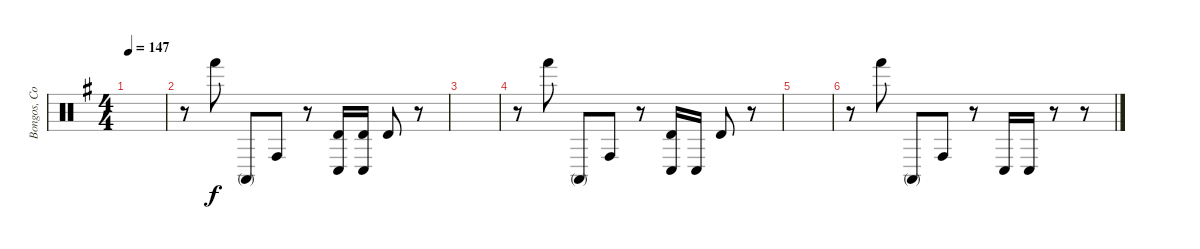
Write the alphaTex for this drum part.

\track ("Bongos, Congos, Timbales" "Bongos, Co") {instrument percussion}
\staff {score}
\articulation defaults
\ts (4 4)
\tempo 147
\clef neutral
\ks g
|
r.8 "Hand (hit)".8 "Conga high (mute)".8 "Conga high (hit)".8 r.8 ("Timbale high (hit)" "Conga low (hit)").16 ("Timbale high (hit)" "Conga low (hit)").16 "Timbale high (hit)".8 r.8 |
|
r.8 "Hand (hit)".8 "Conga high (mute)".8 "Conga high (hit)".8 r.8 ("Timbale high (hit)" "Conga low (hit)").16 "Conga low (hit)".16 "Timbale high (hit)".8 r.8 |
|
r.8 "Hand (hit)".8 "Conga high (mute)".8 "Conga high (hit)".8 r.8 "Conga low (hit)".16 "Conga low (hit)".16 r.8 r.8
